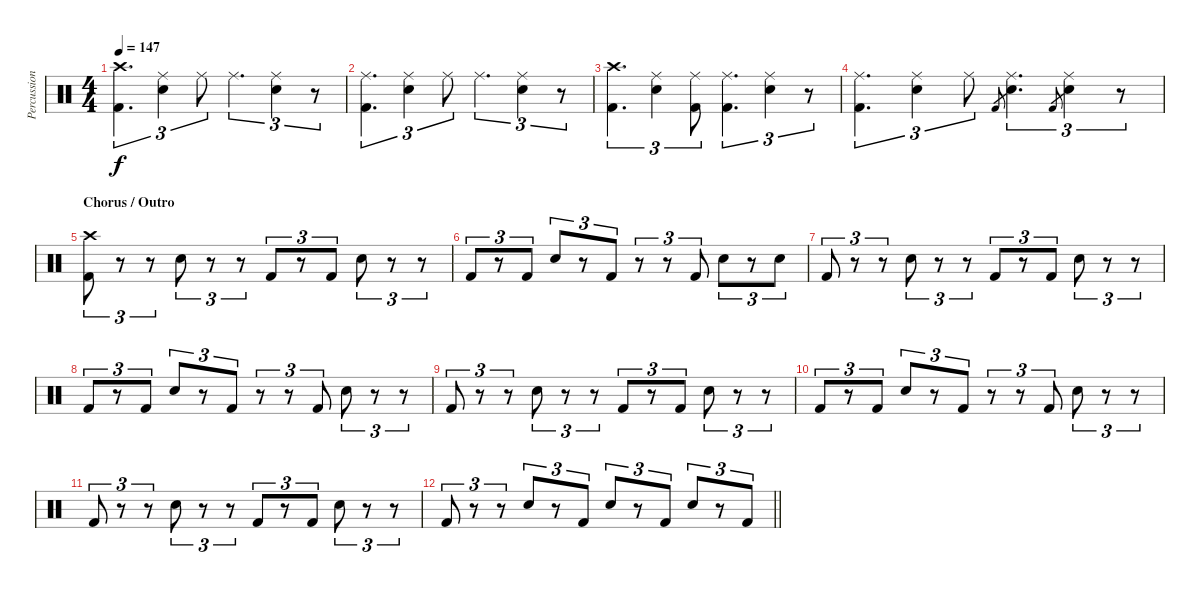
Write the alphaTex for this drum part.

\track ("Percussion" "Percussion") {instrument percussion}
\staff {score}
\articulation defaults
\ts (4 4)
\tempo 147
\clef neutral
\ks c
("Crash high (hit)" "Kick (hit) 2").4{d tu (3 2) dy f} ("Ride (middle)" "Electric Snare (hit)").4{tu (3 2)} "Ride (middle)".8{tu (3 2)} "Ride (middle)".4{d tu (3 2)} ("Ride (middle)" "Electric Snare (hit)").4{tu (3 2)} r.8{tu (3 2)} |
("Ride (middle)" "Kick (hit) 2").4{d tu (3 2)} ("Ride (middle)" "Electric Snare (hit)").4{tu (3 2)} "Ride (middle)".8{tu (3 2)} "Ride (middle)".4{d tu (3 2)} ("Ride (middle)" "Electric Snare (hit)").4{tu (3 2)} r.8{tu (3 2)} |
("Crash high (hit)" "Kick (hit) 2").4{d tu (3 2)} ("Ride (middle)" "Electric Snare (hit)").4{tu (3 2)} ("Ride (middle)" "Kick (hit) 2").8{tu (3 2)} ("Ride (middle)" "Kick (hit) 2").4{d tu (3 2)} ("Ride (middle)" "Electric Snare (hit)").4{tu (3 2)} r.8{tu (3 2)} |
("Ride (middle)" "Kick (hit) 2").4{d tu (3 2)} ("Ride (middle)" "Electric Snare (hit)").4{tu (3 2)} "Ride (middle)".8{tu (3 2)} "Kick (hit) 2".8{gr} ("Ride (middle)" "Electric Snare (hit)").4{d tu (3 2)} "Kick (hit) 2".8{gr} ("Ride (middle)" "Electric Snare (hit)").4{tu (3 2)} r.8{tu (3 2)} |
\section ("" "Chorus / Outro")
("Crash high (hit)" "Kick (hit) 2").8{tu (3 2)} r.8{tu (3 2)} r.8{tu (3 2)} "Electric Snare (hit)".8{tu (3 2)} r.8{tu (3 2)} r.8{tu (3 2)} "Kick (hit) 2".8{tu (3 2)} r.8{tu (3 2)} "Kick (hit) 2".8{tu (3 2)} "Electric Snare (hit)".8{tu (3 2)} r.8{tu (3 2)} r.8{tu (3 2)} |
"Kick (hit) 2".8{tu (3 2)} r.8{tu (3 2)} "Kick (hit) 2".8{tu (3 2)} "Electric Snare (hit)".8{tu (3 2)} r.8{tu (3 2)} "Kick (hit) 2".8{tu (3 2)} r.8{tu (3 2)} r.8{tu (3 2)} "Kick (hit) 2".8{tu (3 2)} "Electric Snare (hit)".8{tu (3 2)} r.8{tu (3 2)} "Electric Snare (hit)".8{tu (3 2)} |
"Kick (hit) 2".8{tu (3 2)} r.8{tu (3 2)} r.8{tu (3 2)} "Electric Snare (hit)".8{tu (3 2)} r.8{tu (3 2)} r.8{tu (3 2)} "Kick (hit) 2".8{tu (3 2)} r.8{tu (3 2)} "Kick (hit) 2".8{tu (3 2)} "Electric Snare (hit)".8{tu (3 2)} r.8{tu (3 2)} r.8{tu (3 2)} |
"Kick (hit) 2".8{tu (3 2)} r.8{tu (3 2)} "Kick (hit) 2".8{tu (3 2)} "Electric Snare (hit)".8{tu (3 2)} r.8{tu (3 2)} "Kick (hit) 2".8{tu (3 2)} r.8{tu (3 2)} r.8{tu (3 2)} "Kick (hit) 2".8{tu (3 2)} "Electric Snare (hit)".8{tu (3 2)} r.8{tu (3 2)} r.8{tu (3 2)} |
"Kick (hit) 2".8{tu (3 2)} r.8{tu (3 2)} r.8{tu (3 2)} "Electric Snare (hit)".8{tu (3 2)} r.8{tu (3 2)} r.8{tu (3 2)} "Kick (hit) 2".8{tu (3 2)} r.8{tu (3 2)} "Kick (hit) 2".8{tu (3 2)} "Electric Snare (hit)".8{tu (3 2)} r.8{tu (3 2)} r.8{tu (3 2)} |
"Kick (hit) 2".8{tu (3 2)} r.8{tu (3 2)} "Kick (hit) 2".8{tu (3 2)} "Electric Snare (hit)".8{tu (3 2)} r.8{tu (3 2)} "Kick (hit) 2".8{tu (3 2)} r.8{tu (3 2)} r.8{tu (3 2)} "Kick (hit) 2".8{tu (3 2)} "Electric Snare (hit)".8{tu (3 2)} r.8{tu (3 2)} r.8{tu (3 2)} |
"Kick (hit) 2".8{tu (3 2)} r.8{tu (3 2)} r.8{tu (3 2)} "Electric Snare (hit)".8{tu (3 2)} r.8{tu (3 2)} r.8{tu (3 2)} "Kick (hit) 2".8{tu (3 2)} r.8{tu (3 2)} "Kick (hit) 2".8{tu (3 2)} "Electric Snare (hit)".8{tu (3 2)} r.8{tu (3 2)} r.8{tu (3 2)} |
\barLineRight lightlight "Kick (hit) 2".8{tu (3 2)}
r.8{tu (3 2)} r.8{tu (3 2)} "Electric Snare (hit)".8{tu (3 2)} r.8{tu (3 2)} "Kick (hit) 2".8{tu (3 2)} "Electric Snare (hit)".8{tu (3 2)} r.8{tu (3 2)} "Kick (hit) 2".8{tu (3 2)} "Electric Snare (hit)".8{tu (3 2)} r.8{tu (3 2)} "Kick (hit) 2".8{tu (3 2)}
